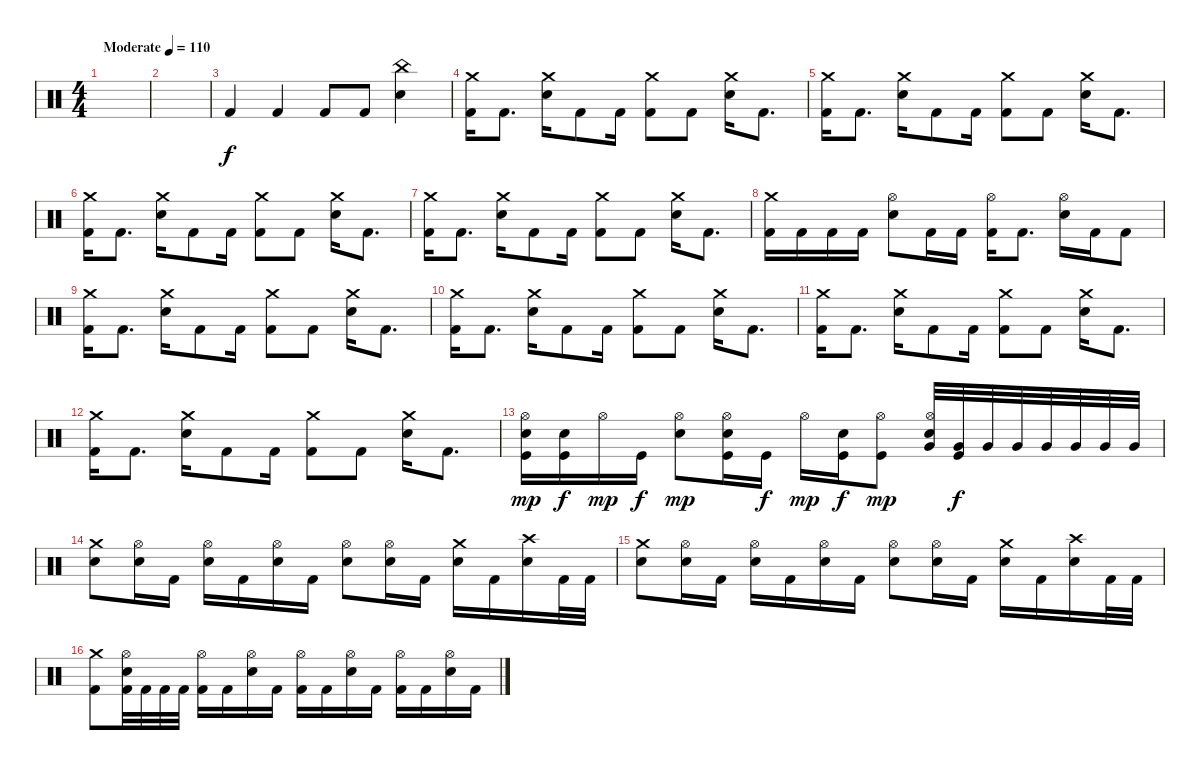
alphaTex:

\track "" {instrument percussion}
\staff {score}
\articulation defaults
\ts (4 4)
\tempo (110 "Moderate")
\clef neutral
\ks c
|
|
"Kick (hit) 2".4 "Kick (hit) 2".4 "Kick (hit) 2".8 "Kick (hit) 2".8 ("China (hit)" "Electric Snare (hit)").4 |
("Crash medium (hit)" "Kick (hit) 2").16 "Kick (hit) 2".8{d} ("Crash medium (hit)" "Electric Snare (hit)").16 "Kick (hit) 2".8 "Kick (hit) 2".16 ("Crash medium (hit)" "Kick (hit) 2").8 "Kick (hit) 2".8 ("Crash medium (hit)" "Electric Snare (hit)").16 "Kick (hit) 2".8{d} |
("Crash medium (hit)" "Kick (hit) 2").16 "Kick (hit) 2".8{d} ("Crash medium (hit)" "Electric Snare (hit)").16 "Kick (hit) 2".8 "Kick (hit) 2".16 ("Crash medium (hit)" "Kick (hit) 2").8 "Kick (hit) 2".8 ("Crash medium (hit)" "Electric Snare (hit)").16 "Kick (hit) 2".8{d} |
("Crash medium (hit)" "Kick (hit) 2").16 "Kick (hit) 2".8{d} ("Crash medium (hit)" "Electric Snare (hit)").16 "Kick (hit) 2".8 "Kick (hit) 2".16 ("Crash medium (hit)" "Kick (hit) 2").8 "Kick (hit) 2".8 ("Crash medium (hit)" "Electric Snare (hit)").16 "Kick (hit) 2".8{d} |
("Crash medium (hit)" "Kick (hit) 2").16 "Kick (hit) 2".8{d} ("Crash medium (hit)" "Electric Snare (hit)").16 "Kick (hit) 2".8 "Kick (hit) 2".16 ("Crash medium (hit)" "Kick (hit) 2").8 "Kick (hit) 2".8 ("Crash medium (hit)" "Electric Snare (hit)").16 "Kick (hit) 2".8{d} |
("Crash medium (hit)" "Kick (hit) 2").16 "Kick (hit) 2".16 "Kick (hit) 2".16 "Kick (hit) 2".16 ("Hi-Hat (open)" "Electric Snare (hit)").8 "Kick (hit) 2".16 "Kick (hit) 2".16 ("Hi-Hat (open)" "Kick (hit) 2").16 "Kick (hit) 2".8{d} ("Hi-Hat (open)" "Electric Snare (hit)").16 "Kick (hit) 2".16 "Kick (hit) 2".8 |
("Crash medium (hit)" "Kick (hit) 2").16 "Kick (hit) 2".8{d} ("Crash medium (hit)" "Electric Snare (hit)").16 "Kick (hit) 2".8 "Kick (hit) 2".16 ("Crash medium (hit)" "Kick (hit) 2").8 "Kick (hit) 2".8 ("Crash medium (hit)" "Electric Snare (hit)").16 "Kick (hit) 2".8{d} |
("Crash medium (hit)" "Kick (hit) 2").16 "Kick (hit) 2".8{d} ("Crash medium (hit)" "Electric Snare (hit)").16 "Kick (hit) 2".8 "Kick (hit) 2".16 ("Crash medium (hit)" "Kick (hit) 2").8 "Kick (hit) 2".8 ("Crash medium (hit)" "Electric Snare (hit)").16 "Kick (hit) 2".8{d} |
("Crash medium (hit)" "Kick (hit) 2").16 "Kick (hit) 2".8{d} ("Crash medium (hit)" "Electric Snare (hit)").16 "Kick (hit) 2".8 "Kick (hit) 2".16 ("Crash medium (hit)" "Kick (hit) 2").8 "Kick (hit) 2".8 ("Crash medium (hit)" "Electric Snare (hit)").16 "Kick (hit) 2".8{d} |
("Crash medium (hit)" "Kick (hit) 2").16 "Kick (hit) 2".8{d} ("Crash medium (hit)" "Electric Snare (hit)").16 "Kick (hit) 2".8 "Kick (hit) 2".16 ("Crash medium (hit)" "Kick (hit) 2").8 "Kick (hit) 2".8 ("Crash medium (hit)" "Electric Snare (hit)").16 "Kick (hit) 2".8{d} |
("Hi-Hat (open)" "Electric Snare (hit)" "Kick (hit)").16{dy mp} ("Electric Snare (hit)" "Kick (hit)").16{dy f} "Hi-Hat (open)".16{dy mp} "Kick (hit)".16{dy f} ("Hi-Hat (open)" "Electric Snare (hit)").8{dy mp} ("Hi-Hat (open)" "Electric Snare (hit)" "Kick (hit)").16 "Kick (hit)".16{dy f} "Hi-Hat (open)".16{dy mp} ("Electric Snare (hit)" "Kick (hit)").16{dy f} ("Hi-Hat (open)" "Kick (hit)").8{dy mp} ("Hi-Hat (open)" "Very Low Tom (hit)" "Electric Snare (hit)").32 ("Very Low Tom (hit)" "Kick (hit)").32{dy f} "Very Low Tom (hit)".32 "Very Low Tom (hit)".32 "Very Low Tom (hit)".32 "Very Low Tom (hit)".32 "Very Low Tom (hit)".32 "Very Low Tom (hit)".32 |
("Crash medium (hit)" "Electric Snare (hit)").8 ("Hi-Hat (open)" "Electric Snare (hit)").16 "Kick (hit) 2".16 ("Hi-Hat (open)" "Electric Snare (hit)").16 "Kick (hit) 2".16 ("Hi-Hat (open)" "Electric Snare (hit)").16 "Kick (hit) 2".16 ("Hi-Hat (open)" "Electric Snare (hit)").8 ("Hi-Hat (open)" "Electric Snare (hit)").16 "Kick (hit) 2".16 ("Crash medium (hit)" "Electric Snare (hit)").16 "Kick (hit) 2".16 ("Crash high (hit)" "Electric Snare (hit)").16 "Kick (hit) 2".32 "Kick (hit) 2".32 |
("Crash medium (hit)" "Electric Snare (hit)").8 ("Hi-Hat (open)" "Electric Snare (hit)").16 "Kick (hit) 2".16 ("Hi-Hat (open)" "Electric Snare (hit)").16 "Kick (hit) 2".16 ("Hi-Hat (open)" "Electric Snare (hit)").16 "Kick (hit) 2".16 ("Hi-Hat (open)" "Electric Snare (hit)").8 ("Hi-Hat (open)" "Electric Snare (hit)").16 "Kick (hit) 2".16 ("Crash medium (hit)" "Electric Snare (hit)").16 "Kick (hit) 2".16 ("Crash high (hit)" "Electric Snare (hit)").16 "Kick (hit) 2".32 "Kick (hit) 2".32 |
("Crash medium (hit)" "Kick (hit) 2").8 ("Hi-Hat (open)" "Electric Snare (hit)" "Kick (hit) 2").32 "Kick (hit) 2".32 "Kick (hit) 2".32 "Kick (hit) 2".32 ("Hi-Hat (open)" "Kick (hit) 2").16 "Kick (hit) 2".16 ("Hi-Hat (open)" "Electric Snare (hit)").16 "Kick (hit) 2".16 ("Hi-Hat (open)" "Kick (hit) 2").16 "Kick (hit) 2".16 ("Hi-Hat (open)" "Electric Snare (hit)").16 "Kick (hit) 2".16 ("Hi-Hat (open)" "Kick (hit) 2").16 "Kick (hit) 2".16 ("Hi-Hat (open)" "Electric Snare (hit)").16 "Kick (hit) 2".16
